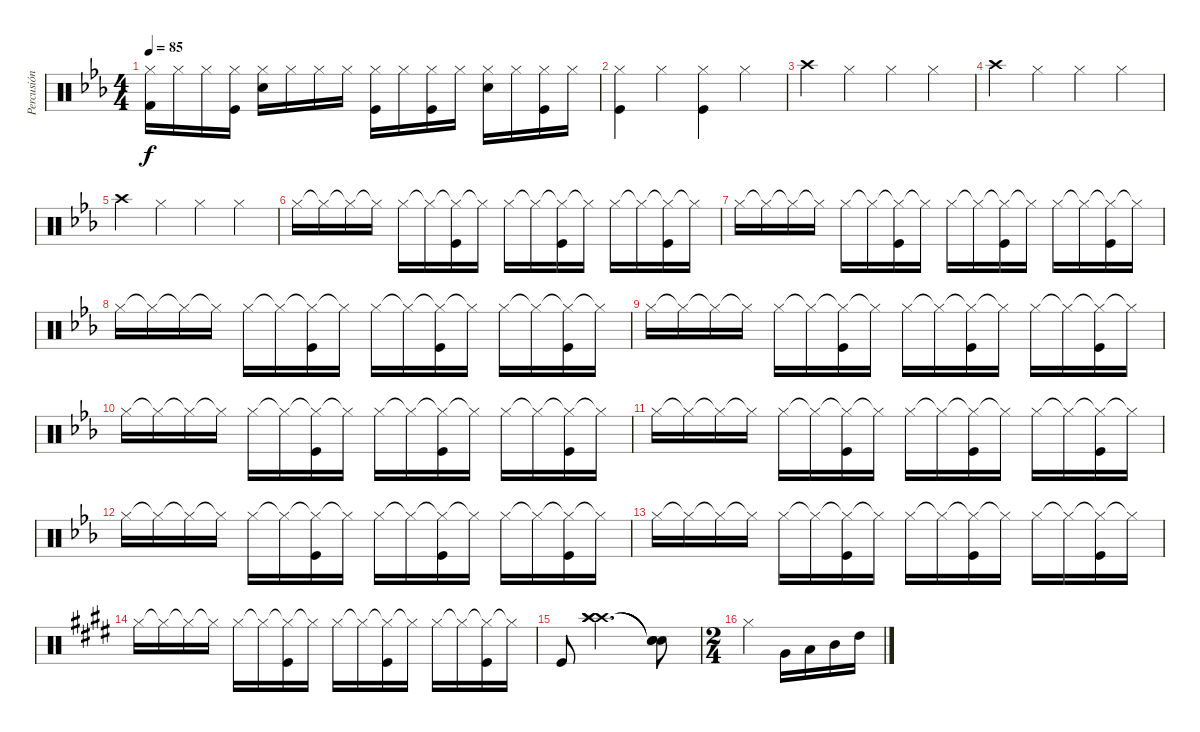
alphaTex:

\track ("Percusión" "Percusión") {instrument percussion}
\staff {score}
\articulation defaults
\ts (4 4)
\tempo 85
\clef neutral
\ks eb
("Hi-Hat (closed)" "Kick (hit) 2").16{dy f} "Hi-Hat (closed)".16 "Hi-Hat (closed)".16 ("Hi-Hat (closed)" "Kick (hit)").16 ("Hi-Hat (closed)" "Snare (hit) 2").16 "Hi-Hat (closed)".16 "Hi-Hat (closed)".16 "Hi-Hat (closed)".16 ("Hi-Hat (closed)" "Kick (hit)").16 "Hi-Hat (closed)".16 ("Hi-Hat (closed)" "Kick (hit)").16 "Hi-Hat (closed)".16 ("Hi-Hat (closed)" "Snare (hit) 2").16 "Hi-Hat (closed)".16 ("Hi-Hat (closed)" "Kick (hit)").16 "Hi-Hat (closed)".16 |
("Hi-Hat (closed)" "Kick (hit)").4 "Hi-Hat (closed)".4 ("Hi-Hat (closed)" "Kick (hit)").4 "Hi-Hat (closed)".4 |
"Crash high (hit)".4 "Hi-Hat (closed)".4 "Hi-Hat (closed)".4 "Hi-Hat (closed)".4 |
"Crash high (hit)".4 "Hi-Hat (closed)".4 "Hi-Hat (closed)".4 "Hi-Hat (closed)".4 |
"Crash high (hit)".4 "Hi-Hat (closed)".4 "Hi-Hat (closed)".4 "Hi-Hat (closed)".4 |
"Hi-Hat (closed)".16 "Hi-Hat (closed)"{t}.16 "Hi-Hat (closed)"{t}.16 "Hi-Hat (closed)"{t}.16 "Hi-Hat (closed)".16 "Hi-Hat (closed)"{t}.16 ("Hi-Hat (closed)"{t} "Kick (hit)").16 "Hi-Hat (closed)"{t}.16 "Hi-Hat (closed)".16 "Hi-Hat (closed)"{t}.16 ("Hi-Hat (closed)"{t} "Kick (hit)").16 "Hi-Hat (closed)"{t}.16 "Hi-Hat (closed)".16 "Hi-Hat (closed)"{t}.16 ("Hi-Hat (closed)"{t} "Kick (hit)").16 "Hi-Hat (closed)"{t}.16 |
"Hi-Hat (closed)".16 "Hi-Hat (closed)"{t}.16 "Hi-Hat (closed)"{t}.16 "Hi-Hat (closed)"{t}.16 "Hi-Hat (closed)".16 "Hi-Hat (closed)"{t}.16 ("Hi-Hat (closed)"{t} "Kick (hit)").16 "Hi-Hat (closed)"{t}.16 "Hi-Hat (closed)".16 "Hi-Hat (closed)"{t}.16 ("Hi-Hat (closed)"{t} "Kick (hit)").16 "Hi-Hat (closed)"{t}.16 "Hi-Hat (closed)".16 "Hi-Hat (closed)"{t}.16 ("Hi-Hat (closed)"{t} "Kick (hit)").16 "Hi-Hat (closed)"{t}.16 |
"Hi-Hat (closed)".16 "Hi-Hat (closed)"{t}.16 "Hi-Hat (closed)"{t}.16 "Hi-Hat (closed)"{t}.16 "Hi-Hat (closed)".16 "Hi-Hat (closed)"{t}.16 ("Hi-Hat (closed)"{t} "Kick (hit)").16 "Hi-Hat (closed)"{t}.16 "Hi-Hat (closed)".16 "Hi-Hat (closed)"{t}.16 ("Hi-Hat (closed)"{t} "Kick (hit)").16 "Hi-Hat (closed)"{t}.16 "Hi-Hat (closed)".16 "Hi-Hat (closed)"{t}.16 ("Hi-Hat (closed)"{t} "Kick (hit)").16 "Hi-Hat (closed)"{t}.16 |
"Hi-Hat (closed)".16 "Hi-Hat (closed)"{t}.16 "Hi-Hat (closed)"{t}.16 "Hi-Hat (closed)"{t}.16 "Hi-Hat (closed)".16 "Hi-Hat (closed)"{t}.16 ("Hi-Hat (closed)"{t} "Kick (hit)").16 "Hi-Hat (closed)"{t}.16 "Hi-Hat (closed)".16 "Hi-Hat (closed)"{t}.16 ("Hi-Hat (closed)"{t} "Kick (hit)").16 "Hi-Hat (closed)"{t}.16 "Hi-Hat (closed)".16 "Hi-Hat (closed)"{t}.16 ("Hi-Hat (closed)"{t} "Kick (hit)").16 "Hi-Hat (closed)"{t}.16 |
"Hi-Hat (closed)".16 "Hi-Hat (closed)"{t}.16 "Hi-Hat (closed)"{t}.16 "Hi-Hat (closed)"{t}.16 "Hi-Hat (closed)".16 "Hi-Hat (closed)"{t}.16 ("Hi-Hat (closed)"{t} "Kick (hit)").16 "Hi-Hat (closed)"{t}.16 "Hi-Hat (closed)".16 "Hi-Hat (closed)"{t}.16 ("Hi-Hat (closed)"{t} "Kick (hit)").16 "Hi-Hat (closed)"{t}.16 "Hi-Hat (closed)".16 "Hi-Hat (closed)"{t}.16 ("Hi-Hat (closed)"{t} "Kick (hit)").16 "Hi-Hat (closed)"{t}.16 |
"Hi-Hat (closed)".16 "Hi-Hat (closed)"{t}.16 "Hi-Hat (closed)"{t}.16 "Hi-Hat (closed)"{t}.16 "Hi-Hat (closed)".16 "Hi-Hat (closed)"{t}.16 ("Hi-Hat (closed)"{t} "Kick (hit)").16 "Hi-Hat (closed)"{t}.16 "Hi-Hat (closed)".16 "Hi-Hat (closed)"{t}.16 ("Hi-Hat (closed)"{t} "Kick (hit)").16 "Hi-Hat (closed)"{t}.16 "Hi-Hat (closed)".16 "Hi-Hat (closed)"{t}.16 ("Hi-Hat (closed)"{t} "Kick (hit)").16 "Hi-Hat (closed)"{t}.16 |
"Hi-Hat (closed)".16 "Hi-Hat (closed)"{t}.16 "Hi-Hat (closed)"{t}.16 "Hi-Hat (closed)"{t}.16 "Hi-Hat (closed)".16 "Hi-Hat (closed)"{t}.16 ("Hi-Hat (closed)"{t} "Kick (hit)").16 "Hi-Hat (closed)"{t}.16 "Hi-Hat (closed)".16 "Hi-Hat (closed)"{t}.16 ("Hi-Hat (closed)"{t} "Kick (hit)").16 "Hi-Hat (closed)"{t}.16 "Hi-Hat (closed)".16 "Hi-Hat (closed)"{t}.16 ("Hi-Hat (closed)"{t} "Kick (hit)").16 "Hi-Hat (closed)"{t}.16 |
"Hi-Hat (closed)".16 "Hi-Hat (closed)"{t}.16 "Hi-Hat (closed)"{t}.16 "Hi-Hat (closed)"{t}.16 "Hi-Hat (closed)".16 "Hi-Hat (closed)"{t}.16 ("Hi-Hat (closed)"{t} "Kick (hit)").16 "Hi-Hat (closed)"{t}.16 "Hi-Hat (closed)".16 "Hi-Hat (closed)"{t}.16 ("Hi-Hat (closed)"{t} "Kick (hit)").16 "Hi-Hat (closed)"{t}.16 "Hi-Hat (closed)".16 "Hi-Hat (closed)"{t}.16 ("Hi-Hat (closed)"{t} "Kick (hit)").16 "Hi-Hat (closed)"{t}.16 |
\ks e "Hi-Hat (closed)".16 "Hi-Hat (closed)"{t}.16 "Hi-Hat (closed)"{t}.16 "Hi-Hat (closed)"{t}.16 "Hi-Hat (closed)".16 "Hi-Hat (closed)"{t}.16
("Hi-Hat (closed)"{t} "Kick (hit)").16 "Hi-Hat (closed)"{t}.16 "Hi-Hat (closed)".16 "Hi-Hat (closed)"{t}.16 ("Hi-Hat (closed)"{t} "Kick (hit)").16 "Hi-Hat (closed)"{t}.16 "Hi-Hat (closed)".16 "Hi-Hat (closed)"{t}.16 ("Hi-Hat (closed)"{t} "Kick (hit)").16 "Hi-Hat (closed)"{t}.16 |
"Kick (hit)".8 ("Crash high (hit)" "Crash high (hit)" "Crash high (hit)").2{d} ("Snare (hit)"{t} "Snare (hit)"{t} "Snare (hit)"{t}).8 |
\ts (2 4)
"Hi-Hat (closed)".4 "Very Low Tom (hit)".16 "Low Tom (hit)".16 "Mid Tom (hit)".16 "High Tom (hit)".16
